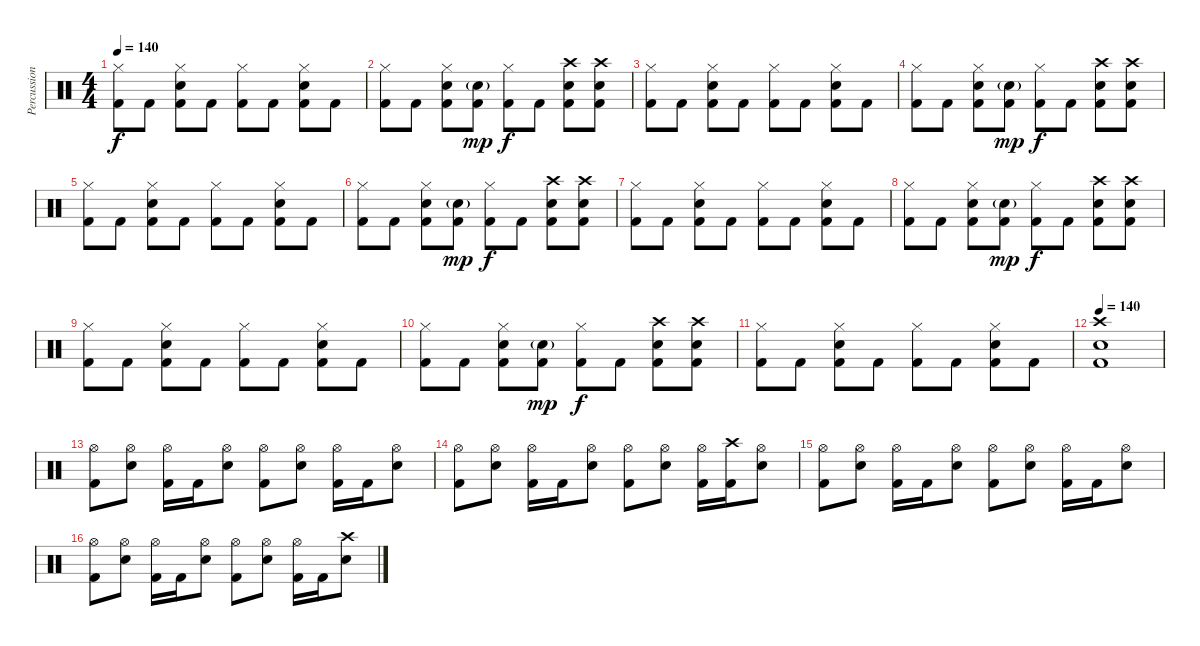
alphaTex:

\track ("Percussions" "Percussion") {instrument percussion}
\staff {score}
\articulation defaults
\ts (4 4)
\tempo 140
\clef neutral
\ks c
("Hi-Hat (closed)" "Kick (hit) 2").8{dy f} "Kick (hit) 2".8 ("Hi-Hat (closed)" "Snare (hit) 2" "Kick (hit) 2").8 "Kick (hit) 2".8 ("Hi-Hat (closed)" "Kick (hit) 2").8 "Kick (hit) 2".8 ("Hi-Hat (closed)" "Snare (hit) 2" "Kick (hit) 2").8 "Kick (hit) 2".8 |
("Hi-Hat (closed)" "Kick (hit) 2").8 "Kick (hit) 2".8 ("Hi-Hat (closed)" "Snare (hit) 2" "Kick (hit) 2").8 ("Snare (hit) 2"{g} "Kick (hit) 2").8{dy mp} ("Hi-Hat (closed)" "Kick (hit) 2").8{dy f} "Kick (hit) 2".8 ("Crash high (hit)" "Snare (hit) 2" "Kick (hit) 2").8 ("Crash high (hit)" "Snare (hit) 2" "Kick (hit) 2").8 |
("Hi-Hat (closed)" "Kick (hit) 2").8 "Kick (hit) 2".8 ("Hi-Hat (closed)" "Snare (hit) 2" "Kick (hit) 2").8 "Kick (hit) 2".8 ("Hi-Hat (closed)" "Kick (hit) 2").8 "Kick (hit) 2".8 ("Hi-Hat (closed)" "Snare (hit) 2" "Kick (hit) 2").8 "Kick (hit) 2".8 |
("Hi-Hat (closed)" "Kick (hit) 2").8 "Kick (hit) 2".8 ("Hi-Hat (closed)" "Snare (hit) 2" "Kick (hit) 2").8 ("Snare (hit) 2"{g} "Kick (hit) 2").8{dy mp} ("Hi-Hat (closed)" "Kick (hit) 2").8{dy f} "Kick (hit) 2".8 ("Crash high (hit)" "Snare (hit) 2" "Kick (hit) 2").8 ("Crash high (hit)" "Snare (hit) 2" "Kick (hit) 2").8 |
("Hi-Hat (closed)" "Kick (hit) 2").8 "Kick (hit) 2".8 ("Hi-Hat (closed)" "Snare (hit) 2" "Kick (hit) 2").8 "Kick (hit) 2".8 ("Hi-Hat (closed)" "Kick (hit) 2").8 "Kick (hit) 2".8 ("Hi-Hat (closed)" "Snare (hit) 2" "Kick (hit) 2").8 "Kick (hit) 2".8 |
("Hi-Hat (closed)" "Kick (hit) 2").8 "Kick (hit) 2".8 ("Hi-Hat (closed)" "Snare (hit) 2" "Kick (hit) 2").8 ("Snare (hit) 2"{g} "Kick (hit) 2").8{dy mp} ("Hi-Hat (closed)" "Kick (hit) 2").8{dy f} "Kick (hit) 2".8 ("Crash high (hit)" "Snare (hit) 2" "Kick (hit) 2").8 ("Crash high (hit)" "Snare (hit) 2" "Kick (hit) 2").8 |
("Hi-Hat (closed)" "Kick (hit) 2").8 "Kick (hit) 2".8 ("Hi-Hat (closed)" "Snare (hit) 2" "Kick (hit) 2").8 "Kick (hit) 2".8 ("Hi-Hat (closed)" "Kick (hit) 2").8 "Kick (hit) 2".8 ("Hi-Hat (closed)" "Snare (hit) 2" "Kick (hit) 2").8 "Kick (hit) 2".8 |
("Hi-Hat (closed)" "Kick (hit) 2").8 "Kick (hit) 2".8 ("Hi-Hat (closed)" "Snare (hit) 2" "Kick (hit) 2").8 ("Snare (hit) 2"{g} "Kick (hit) 2").8{dy mp} ("Hi-Hat (closed)" "Kick (hit) 2").8{dy f} "Kick (hit) 2".8 ("Crash high (hit)" "Snare (hit) 2" "Kick (hit) 2").8 ("Crash high (hit)" "Snare (hit) 2" "Kick (hit) 2").8 |
("Hi-Hat (closed)" "Kick (hit) 2").8 "Kick (hit) 2".8 ("Hi-Hat (closed)" "Snare (hit) 2" "Kick (hit) 2").8 "Kick (hit) 2".8 ("Hi-Hat (closed)" "Kick (hit) 2").8 "Kick (hit) 2".8 ("Hi-Hat (closed)" "Snare (hit) 2" "Kick (hit) 2").8 "Kick (hit) 2".8 |
("Hi-Hat (closed)" "Kick (hit) 2").8 "Kick (hit) 2".8 ("Hi-Hat (closed)" "Snare (hit) 2" "Kick (hit) 2").8 ("Snare (hit) 2"{g} "Kick (hit) 2").8{dy mp} ("Hi-Hat (closed)" "Kick (hit) 2").8{dy f} "Kick (hit) 2".8 ("Crash high (hit)" "Snare (hit) 2" "Kick (hit) 2").8 ("Crash high (hit)" "Snare (hit) 2" "Kick (hit) 2").8 |
("Hi-Hat (closed)" "Kick (hit) 2").8 "Kick (hit) 2".8 ("Hi-Hat (closed)" "Snare (hit) 2" "Kick (hit) 2").8 "Kick (hit) 2".8 ("Hi-Hat (closed)" "Kick (hit) 2").8 "Kick (hit) 2".8 ("Hi-Hat (closed)" "Snare (hit) 2" "Kick (hit) 2").8 "Kick (hit) 2".8 |
\tempo 140
("Kick (hit) 2" "Snare (hit) 2" "Crash high (hit)").1{volume 16} |
("Hi-Hat (open)" "Kick (hit) 2").8 ("Hi-Hat (open)" "Snare (hit) 2").8 ("Hi-Hat (open)" "Kick (hit) 2").16 "Kick (hit) 2".16 ("Hi-Hat (open)" "Snare (hit) 2").8 ("Hi-Hat (open)" "Kick (hit) 2").8 ("Hi-Hat (open)" "Snare (hit) 2").8 ("Hi-Hat (open)" "Kick (hit) 2").16 "Kick (hit) 2".16 ("Hi-Hat (open)" "Snare (hit) 2").8 |
("Hi-Hat (open)" "Kick (hit) 2").8 ("Hi-Hat (open)" "Snare (hit) 2").8 ("Hi-Hat (open)" "Kick (hit) 2").16 "Kick (hit) 2".16 ("Hi-Hat (open)" "Snare (hit) 2").8 ("Hi-Hat (open)" "Kick (hit) 2").8 ("Hi-Hat (open)" "Snare (hit) 2").8 ("Hi-Hat (open)" "Kick (hit) 2").16 ("Crash high (hit)" "Kick (hit) 2").16 ("Hi-Hat (open)" "Snare (hit) 2").8 |
("Hi-Hat (open)" "Kick (hit) 2").8 ("Hi-Hat (open)" "Snare (hit) 2").8 ("Hi-Hat (open)" "Kick (hit) 2").16 "Kick (hit) 2".16 ("Hi-Hat (open)" "Snare (hit) 2").8 ("Hi-Hat (open)" "Kick (hit) 2").8 ("Hi-Hat (open)" "Snare (hit) 2").8 ("Hi-Hat (open)" "Kick (hit) 2").16 "Kick (hit) 2".16 ("Hi-Hat (open)" "Snare (hit) 2").8 |
("Hi-Hat (open)" "Kick (hit) 2").8 ("Hi-Hat (open)" "Snare (hit) 2").8 ("Hi-Hat (open)" "Kick (hit) 2").16 "Kick (hit) 2".16 ("Hi-Hat (open)" "Snare (hit) 2").8 ("Hi-Hat (open)" "Kick (hit) 2").8 ("Hi-Hat (open)" "Snare (hit) 2").8 ("Hi-Hat (open)" "Kick (hit) 2").16 "Kick (hit) 2".16 ("Crash high (hit)" "Snare (hit) 2").8
